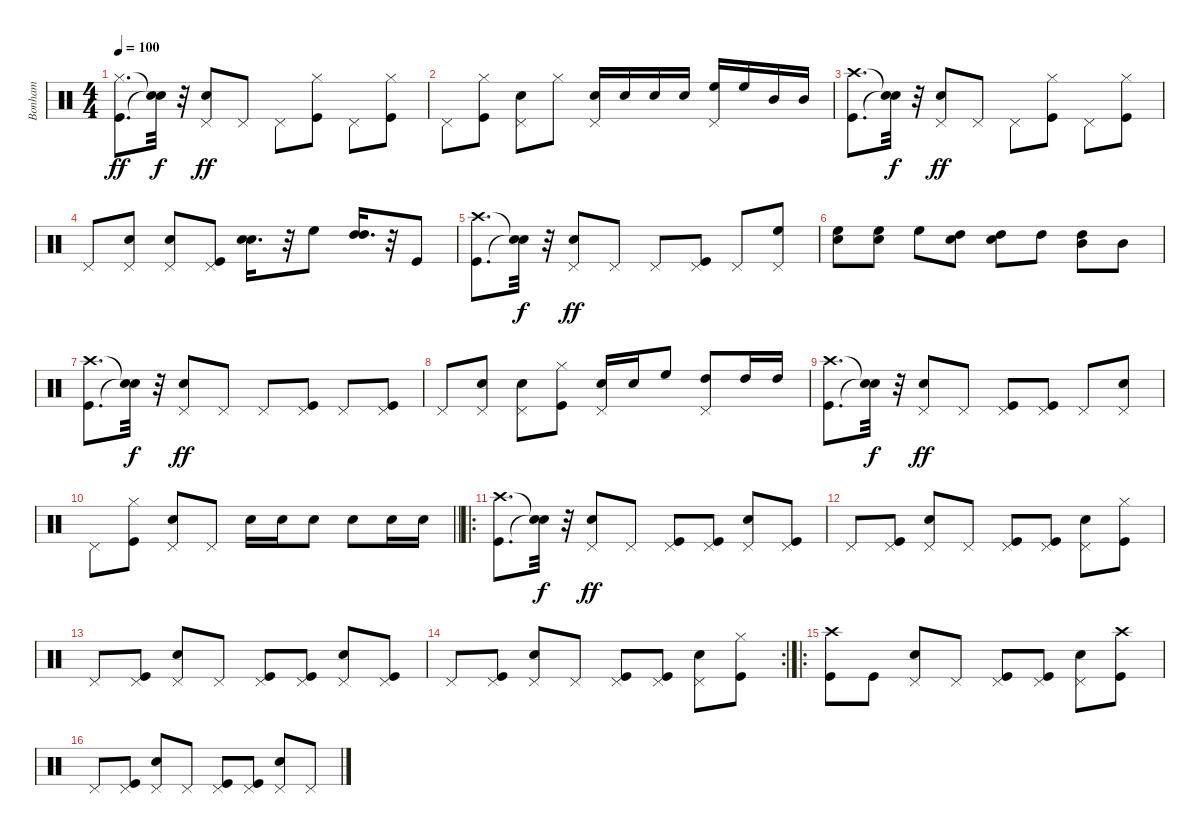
\track ("Bonham" "Bonham") {instrument percussion}
\staff {score}
\articulation defaults
\ts (4 4)
\tempo 100
\clef neutral
\ks c
("Kick (hit)" "Hi-Hat (closed)").8{d dy ff} ("Snare (hit)"{t} "Snare (hit)"{t}).32{dy f} r.32 ("Snare (hit) 2" "Pedal Hi-Hat (hit)").8{dy ff} "Pedal Hi-Hat (hit)".8 "Pedal Hi-Hat (hit)".8 ("Kick (hit)" "Hi-Hat (closed)").8 "Pedal Hi-Hat (hit)".8 ("Kick (hit)" "Hi-Hat (closed)").8 |
"Pedal Hi-Hat (hit)".8 ("Kick (hit)" "Hi-Hat (closed)").8 ("Snare (hit) 2" "Pedal Hi-Hat (hit)").8 "Hi-Hat (closed)".8 ("Snare (hit) 2" "Pedal Hi-Hat (hit)").16 "Snare (hit) 2".16 "Snare (hit) 2".16 "Snare (hit) 2".16 ("Pedal Hi-Hat (hit)" "High Floor Tom (hit)").16 "High Floor Tom (hit)".16 "Mid Tom (hit)".16 "Mid Tom (hit)".16 |
("Kick (hit)" "Crash high (hit)").8{d} ("Snare (hit)"{t} "Snare (hit)"{t}).32{dy f} r.32 ("Snare (hit) 2" "Pedal Hi-Hat (hit)").8{dy ff} "Pedal Hi-Hat (hit)".8 "Pedal Hi-Hat (hit)".8 ("Kick (hit)" "Hi-Hat (closed)").8 "Pedal Hi-Hat (hit)".8 ("Kick (hit)" "Hi-Hat (closed)").8 |
"Pedal Hi-Hat (hit)".8 ("Snare (hit) 2" "Pedal Hi-Hat (hit)").8 ("Snare (hit) 2" "Pedal Hi-Hat (hit)").8 ("Kick (hit)" "Pedal Hi-Hat (hit)").8 ("Snare (hit) 2" "Snare (hit) 2").16{d} r.32 "High Floor Tom (hit)".8 ("High Tom (hit)" "High Tom (hit)").16{d} r.32 "Kick (hit)".8 |
("Kick (hit)" "Crash high (hit)").8{d} ("Snare (hit)"{t} "Snare (hit)"{t}).32{dy f} r.32 ("Snare (hit) 2" "Pedal Hi-Hat (hit)").8{dy ff} "Pedal Hi-Hat (hit)".8 "Pedal Hi-Hat (hit)".8 ("Kick (hit)" "Pedal Hi-Hat (hit)").8 "Pedal Hi-Hat (hit)".8 ("Pedal Hi-Hat (hit)" "High Floor Tom (hit)").8 |
("Snare (hit) 2" "High Floor Tom (hit)").8 ("Snare (hit) 2" "High Floor Tom (hit)").8 "High Floor Tom (hit)".8 ("Snare (hit) 2" "High Tom (hit)").8 ("Snare (hit) 2" "High Tom (hit)").8 "High Tom (hit)".8 ("Mid Tom (hit)" "High Tom (hit)").8 "Mid Tom (hit)".8 |
("Kick (hit)" "Crash high (hit)").8{d} ("Snare (hit)"{t} "Snare (hit)"{t}).32{dy f} r.32 ("Snare (hit) 2" "Pedal Hi-Hat (hit)").8{dy ff} "Pedal Hi-Hat (hit)".8 "Pedal Hi-Hat (hit)".8 ("Kick (hit)" "Pedal Hi-Hat (hit)").8 "Pedal Hi-Hat (hit)".8 ("Kick (hit)" "Pedal Hi-Hat (hit)").8 |
"Pedal Hi-Hat (hit)".8 ("Snare (hit) 2" "Pedal Hi-Hat (hit)").8 ("Snare (hit) 2" "Pedal Hi-Hat (hit)").8 ("Kick (hit)" "Hi-Hat (closed)").8 ("Snare (hit) 2" "Pedal Hi-Hat (hit)").16 "Snare (hit) 2".16 "High Floor Tom (hit)".8 ("Pedal Hi-Hat (hit)" "High Tom (hit)").8 "High Tom (hit)".16 "High Tom (hit)".16 |
("Kick (hit)" "Crash high (hit)").8{d} ("Snare (hit)"{t} "Snare (hit)"{t}).32{dy f} r.32 ("Snare (hit) 2" "Pedal Hi-Hat (hit)").8{dy ff} "Pedal Hi-Hat (hit)".8 ("Kick (hit)" "Pedal Hi-Hat (hit)").8 ("Kick (hit)" "Pedal Hi-Hat (hit)").8 "Pedal Hi-Hat (hit)".8 ("Snare (hit) 2" "Pedal Hi-Hat (hit)").8 |
\barLineRight lightlight "Pedal Hi-Hat (hit)".8
("Kick (hit)" "Hi-Hat (closed)").8 ("Snare (hit) 2" "Pedal Hi-Hat (hit)").8 "Pedal Hi-Hat (hit)".8 "Snare (hit) 2".16 "Snare (hit) 2".16 "Snare (hit) 2".8 "Snare (hit) 2".8 "Snare (hit) 2".16 "Snare (hit) 2".16 |
\ro
("Kick (hit)" "Crash high (hit)").8{d} ("Snare (hit)"{t} "Snare (hit)"{t}).32{dy f} r.32 ("Snare (hit) 2" "Pedal Hi-Hat (hit)").8{dy ff} "Pedal Hi-Hat (hit)".8 ("Kick (hit)" "Pedal Hi-Hat (hit)").8 ("Kick (hit)" "Pedal Hi-Hat (hit)").8 ("Snare (hit) 2" "Pedal Hi-Hat (hit)").8 ("Kick (hit)" "Pedal Hi-Hat (hit)").8 |
"Pedal Hi-Hat (hit)".8 ("Kick (hit)" "Pedal Hi-Hat (hit)").8 ("Snare (hit) 2" "Pedal Hi-Hat (hit)").8 "Pedal Hi-Hat (hit)".8 ("Kick (hit)" "Pedal Hi-Hat (hit)").8 ("Kick (hit)" "Pedal Hi-Hat (hit)").8 ("Snare (hit) 2" "Pedal Hi-Hat (hit)").8 ("Kick (hit)" "Hi-Hat (closed)").8 |
"Pedal Hi-Hat (hit)".8 ("Kick (hit)" "Pedal Hi-Hat (hit)").8 ("Snare (hit) 2" "Pedal Hi-Hat (hit)").8 "Pedal Hi-Hat (hit)".8 ("Kick (hit)" "Pedal Hi-Hat (hit)").8 ("Kick (hit)" "Pedal Hi-Hat (hit)").8 ("Snare (hit) 2" "Pedal Hi-Hat (hit)").8 ("Kick (hit)" "Pedal Hi-Hat (hit)").8 |
\rc 2 "Pedal Hi-Hat (hit)".8
("Kick (hit)" "Pedal Hi-Hat (hit)").8 ("Snare (hit) 2" "Pedal Hi-Hat (hit)").8 "Pedal Hi-Hat (hit)".8 ("Kick (hit)" "Pedal Hi-Hat (hit)").8 ("Kick (hit)" "Pedal Hi-Hat (hit)").8 ("Snare (hit) 2" "Pedal Hi-Hat (hit)").8 ("Kick (hit)" "Hi-Hat (closed)").8 |
\ro
("Kick (hit)" "Crash high (hit)").8 "Kick (hit)".8 ("Snare (hit) 2" "Pedal Hi-Hat (hit)").8 "Pedal Hi-Hat (hit)".8 ("Kick (hit)" "Pedal Hi-Hat (hit)").8 ("Kick (hit)" "Pedal Hi-Hat (hit)").8 ("Snare (hit) 2" "Pedal Hi-Hat (hit)").8 ("Kick (hit)" "Crash high (hit)").8 |
"Pedal Hi-Hat (hit)".8 ("Kick (hit)" "Pedal Hi-Hat (hit)").8 ("Snare (hit) 2" "Pedal Hi-Hat (hit)").8 "Pedal Hi-Hat (hit)".8 ("Kick (hit)" "Pedal Hi-Hat (hit)").8 ("Kick (hit)" "Pedal Hi-Hat (hit)").8 ("Snare (hit) 2" "Pedal Hi-Hat (hit)").8 "Pedal Hi-Hat (hit)".8
